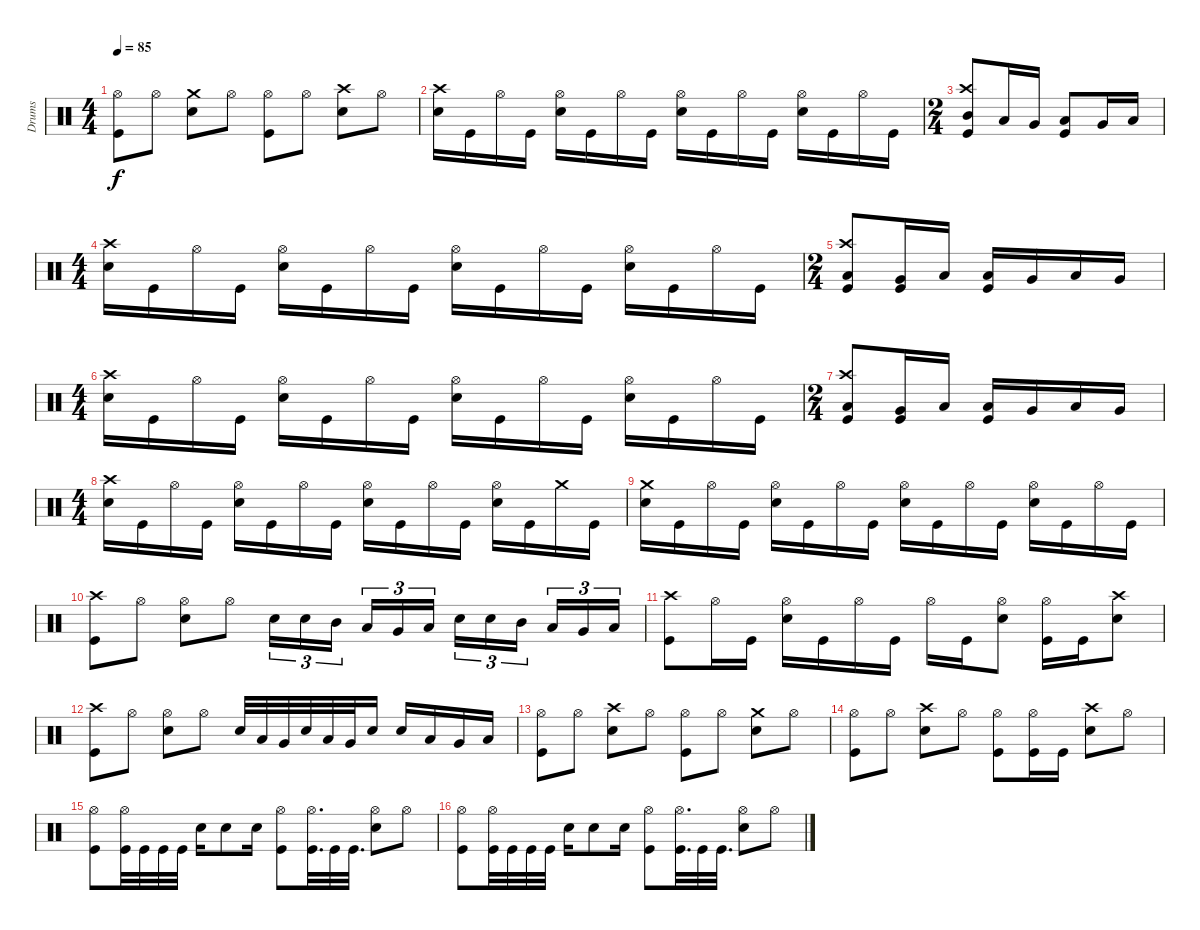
\track ("Drums" "Drums") {instrument percussion}
\staff {score}
\articulation defaults
\ts (4 4)
\tempo 85
\clef neutral
\ks c
("Hi-Hat (open)" "Kick (hit)").8{dy f} "Hi-Hat (open)".8 ("Snare (hit) 2" "Crash medium (hit)").8 "Hi-Hat (open)".8 ("Kick (hit)" "Hi-Hat (open)").8 "Hi-Hat (open)".8 ("Crash high (hit)" "Snare (hit) 2").8 "Hi-Hat (open)".8 |
("Snare (hit) 2" "Crash high (hit)").16 "Kick (hit)".16 "Hi-Hat (open)".16 "Kick (hit)".16 ("Snare (hit) 2" "Hi-Hat (open)").16 "Kick (hit)".16 "Hi-Hat (open)".16 "Kick (hit)".16 ("Snare (hit) 2" "Hi-Hat (open)").16 "Kick (hit)".16 "Hi-Hat (open)".16 "Kick (hit)".16 ("Snare (hit) 2" "Hi-Hat (open)").16 "Kick (hit)".16 "Hi-Hat (open)".16 "Kick (hit)".16 |
\ts (2 4)
("Mid Tom (hit)" "Kick (hit)" "Crash high (hit)").8 "Low Tom (hit)".16 "Very Low Tom (hit)".16 ("Low Tom (hit)" "Kick (hit)").8 "Very Low Tom (hit)".16 "Low Floor Tom (hit)".16 |
\ts (4 4)
("Snare (hit) 2" "Crash high (hit)").16 "Kick (hit)".16 "Hi-Hat (open)".16 "Kick (hit)".16 ("Snare (hit) 2" "Hi-Hat (open)").16 "Kick (hit)".16 "Hi-Hat (open)".16 "Kick (hit)".16 ("Snare (hit) 2" "Hi-Hat (open)").16 "Kick (hit)".16 "Hi-Hat (open)".16 "Kick (hit)".16 ("Snare (hit) 2" "Hi-Hat (open)").16 "Kick (hit)".16 "Hi-Hat (open)".16 "Kick (hit)".16 |
\ts (2 4)
("Low Tom (hit)" "Kick (hit)" "Crash high (hit)").8 ("Kick (hit)" "Very Low Tom (hit)").16 "Low Floor Tom (hit)".16 ("Low Tom (hit)" "Kick (hit)").16 "Very Low Tom (hit)".16 "Low Floor Tom (hit)".16 "Very Low Tom (hit)".16 |
\ts (4 4)
("Snare (hit) 2" "Crash high (hit)").16 "Kick (hit)".16 "Hi-Hat (open)".16 "Kick (hit)".16 ("Snare (hit) 2" "Hi-Hat (open)").16 "Kick (hit)".16 "Hi-Hat (open)".16 "Kick (hit)".16 ("Snare (hit) 2" "Hi-Hat (open)").16 "Kick (hit)".16 "Hi-Hat (open)".16 "Kick (hit)".16 ("Snare (hit) 2" "Hi-Hat (open)").16 "Kick (hit)".16 "Hi-Hat (open)".16 "Kick (hit)".16 |
\ts (2 4)
("Low Tom (hit)" "Kick (hit)" "Crash high (hit)").8 ("Kick (hit)" "Very Low Tom (hit)").16 "Low Floor Tom (hit)".16 ("Low Tom (hit)" "Kick (hit)").16 "Very Low Tom (hit)".16 "Low Floor Tom (hit)".16 "Very Low Tom (hit)".16 |
\ts (4 4)
("Snare (hit) 2" "Crash high (hit)").16 "Kick (hit)".16 "Hi-Hat (open)".16 "Kick (hit)".16 ("Snare (hit) 2" "Hi-Hat (open)").16 "Kick (hit)".16 "Hi-Hat (open)".16 "Kick (hit)".16 ("Snare (hit) 2" "Hi-Hat (open)").16 "Kick (hit)".16 "Hi-Hat (open)".16 "Kick (hit)".16 ("Snare (hit) 2" "Hi-Hat (open)").16 "Kick (hit)".16 "Crash medium (hit)".16 "Kick (hit)".16 |
("Snare (hit) 2" "Crash medium (hit)").16 "Kick (hit)".16 "Hi-Hat (open)".16 "Kick (hit)".16 ("Snare (hit) 2" "Hi-Hat (open)").16 "Kick (hit)".16 "Hi-Hat (open)".16 "Kick (hit)".16 ("Snare (hit) 2" "Hi-Hat (open)").16 "Kick (hit)".16 "Hi-Hat (open)".16 "Kick (hit)".16 ("Snare (hit) 2" "Hi-Hat (open)").16 "Kick (hit)".16 "Hi-Hat (open)".16 "Kick (hit)".16 |
("Crash high (hit)" "Kick (hit)").8 "Hi-Hat (open)".8 ("Snare (hit) 2" "Hi-Hat (open)").8 "Hi-Hat (open)".8 "Snare (hit) 2".16{tu (3 2)} "Snare (hit) 2".16{tu (3 2)} "Mid Tom (hit)".16{tu (3 2)} "Low Tom (hit)".16{tu (3 2)} "Very Low Tom (hit)".16{tu (3 2)} "Low Floor Tom (hit)".16{tu (3 2)} "Snare (hit) 2".16{tu (3 2)} "Snare (hit) 2".16{tu (3 2)} "Mid Tom (hit)".16{tu (3 2)} "Low Tom (hit)".16{tu (3 2)} "Very Low Tom (hit)".16{tu (3 2)} "Low Floor Tom (hit)".16{tu (3 2)} |
("Crash high (hit)" "Kick (hit)").8 "Hi-Hat (open)".16 "Kick (hit)".16 ("Snare (hit) 2" "Hi-Hat (open)").16 "Kick (hit)".16 "Hi-Hat (open)".16 "Kick (hit)".16 "Hi-Hat (open)".16 "Kick (hit)".16 ("Snare (hit) 2" "Hi-Hat (open)").8 ("Hi-Hat (open)" "Kick (hit)").16 "Kick (hit)".16 ("Snare (hit) 2" "Crash high (hit)").8 |
("Crash high (hit)" "Kick (hit)").8 "Hi-Hat (open)".8 ("Snare (hit) 2" "Hi-Hat (open)").8 "Hi-Hat (open)".8 "Snare (hit) 2".32 "Low Tom (hit)".32 "Very Low Tom (hit)".32 "Snare (hit) 2".32 "Low Tom (hit)".32 "Very Low Tom (hit)".32 "Snare (hit) 2".16 "Snare (hit) 2".16 "Low Tom (hit)".16 "Very Low Tom (hit)".16 "Low Floor Tom (hit)".16 |
("Kick (hit)" "Hi-Hat (open)").8 "Hi-Hat (open)".8 ("Crash high (hit)" "Snare (hit) 2").8 "Hi-Hat (open)".8 ("Kick (hit)" "Hi-Hat (open)").8 "Hi-Hat (open)".8 ("Crash medium (hit)" "Snare (hit) 2").8 "Hi-Hat (open)".8 |
("Kick (hit)" "Hi-Hat (open)").8 "Hi-Hat (open)".8 ("Snare (hit) 2" "Crash high (hit)").8 "Hi-Hat (open)".8 ("Kick (hit)" "Hi-Hat (open)").8 ("Kick (hit)" "Hi-Hat (open)").16 "Kick (hit)".16 ("Crash high (hit)" "Snare (hit) 2").8 "Hi-Hat (open)".8 |
("Kick (hit)" "Hi-Hat (open)").8 ("Hi-Hat (open)" "Kick (hit)").32 "Kick (hit)".32 "Kick (hit)".32 "Kick (hit)".32 "Snare (hit) 2".16 "Snare (hit) 2".8 "Snare (hit) 2".16 ("Hi-Hat (open)" "Kick (hit)").8 ("Kick (hit)" "Hi-Hat (open)").32{d} "Kick (hit)".32 "Kick (hit)".32{d} ("Snare (hit) 2" "Hi-Hat (open)").8 "Hi-Hat (open)".8 |
("Kick (hit)" "Hi-Hat (open)").8 ("Hi-Hat (open)" "Kick (hit)").32 "Kick (hit)".32 "Kick (hit)".32 "Kick (hit)".32 "Snare (hit) 2".16 "Snare (hit) 2".8 "Snare (hit) 2".16 ("Hi-Hat (open)" "Kick (hit)").8 ("Kick (hit)" "Hi-Hat (open)").32{d} "Kick (hit)".32 "Kick (hit)".32{d} ("Snare (hit) 2" "Hi-Hat (open)").8 "Hi-Hat (open)".8
